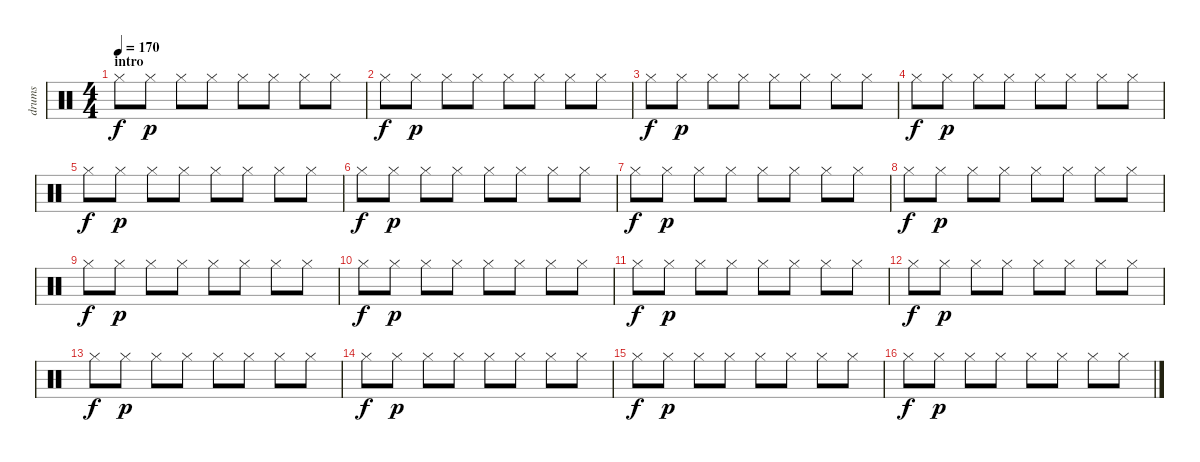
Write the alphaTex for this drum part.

\track ("drums" "drums") {instrument percussion}
\staff {score}
\articulation defaults
\ts (4 4)
\section ("" "intro")
\tempo 170
\clef neutral
\ks c "Hi-Hat (closed)".8{dy f} "Hi-Hat (closed)".8{dy p} "Hi-Hat (closed)".8 "Hi-Hat (closed)".8 "Hi-Hat (closed)".8 "Hi-Hat (closed)".8 "Hi-Hat (closed)".8 "Hi-Hat (closed)".8
|
"Hi-Hat (closed)".8{dy f} "Hi-Hat (closed)".8{dy p} "Hi-Hat (closed)".8 "Hi-Hat (closed)".8 "Hi-Hat (closed)".8 "Hi-Hat (closed)".8 "Hi-Hat (closed)".8 "Hi-Hat (closed)".8 |
"Hi-Hat (closed)".8{dy f} "Hi-Hat (closed)".8{dy p} "Hi-Hat (closed)".8 "Hi-Hat (closed)".8 "Hi-Hat (closed)".8 "Hi-Hat (closed)".8 "Hi-Hat (closed)".8 "Hi-Hat (closed)".8 |
"Hi-Hat (closed)".8{dy f} "Hi-Hat (closed)".8{dy p} "Hi-Hat (closed)".8 "Hi-Hat (closed)".8 "Hi-Hat (closed)".8 "Hi-Hat (closed)".8 "Hi-Hat (closed)".8 "Hi-Hat (closed)".8 |
"Hi-Hat (closed)".8{dy f} "Hi-Hat (closed)".8{dy p} "Hi-Hat (closed)".8 "Hi-Hat (closed)".8 "Hi-Hat (closed)".8 "Hi-Hat (closed)".8 "Hi-Hat (closed)".8 "Hi-Hat (closed)".8 |
"Hi-Hat (closed)".8{dy f} "Hi-Hat (closed)".8{dy p} "Hi-Hat (closed)".8 "Hi-Hat (closed)".8 "Hi-Hat (closed)".8 "Hi-Hat (closed)".8 "Hi-Hat (closed)".8 "Hi-Hat (closed)".8 |
"Hi-Hat (closed)".8{dy f} "Hi-Hat (closed)".8{dy p} "Hi-Hat (closed)".8 "Hi-Hat (closed)".8 "Hi-Hat (closed)".8 "Hi-Hat (closed)".8 "Hi-Hat (closed)".8 "Hi-Hat (closed)".8 |
"Hi-Hat (closed)".8{dy f} "Hi-Hat (closed)".8{dy p} "Hi-Hat (closed)".8 "Hi-Hat (closed)".8 "Hi-Hat (closed)".8 "Hi-Hat (closed)".8 "Hi-Hat (closed)".8 "Hi-Hat (closed)".8 |
"Hi-Hat (closed)".8{dy f} "Hi-Hat (closed)".8{dy p} "Hi-Hat (closed)".8 "Hi-Hat (closed)".8 "Hi-Hat (closed)".8 "Hi-Hat (closed)".8 "Hi-Hat (closed)".8 "Hi-Hat (closed)".8 |
"Hi-Hat (closed)".8{dy f} "Hi-Hat (closed)".8{dy p} "Hi-Hat (closed)".8 "Hi-Hat (closed)".8 "Hi-Hat (closed)".8 "Hi-Hat (closed)".8 "Hi-Hat (closed)".8 "Hi-Hat (closed)".8 |
"Hi-Hat (closed)".8{dy f} "Hi-Hat (closed)".8{dy p} "Hi-Hat (closed)".8 "Hi-Hat (closed)".8 "Hi-Hat (closed)".8 "Hi-Hat (closed)".8 "Hi-Hat (closed)".8 "Hi-Hat (closed)".8 |
"Hi-Hat (closed)".8{dy f} "Hi-Hat (closed)".8{dy p} "Hi-Hat (closed)".8 "Hi-Hat (closed)".8 "Hi-Hat (closed)".8 "Hi-Hat (closed)".8 "Hi-Hat (closed)".8 "Hi-Hat (closed)".8 |
"Hi-Hat (closed)".8{dy f} "Hi-Hat (closed)".8{dy p} "Hi-Hat (closed)".8 "Hi-Hat (closed)".8 "Hi-Hat (closed)".8 "Hi-Hat (closed)".8 "Hi-Hat (closed)".8 "Hi-Hat (closed)".8 |
"Hi-Hat (closed)".8{dy f} "Hi-Hat (closed)".8{dy p} "Hi-Hat (closed)".8 "Hi-Hat (closed)".8 "Hi-Hat (closed)".8 "Hi-Hat (closed)".8 "Hi-Hat (closed)".8 "Hi-Hat (closed)".8 |
"Hi-Hat (closed)".8{dy f} "Hi-Hat (closed)".8{dy p} "Hi-Hat (closed)".8 "Hi-Hat (closed)".8 "Hi-Hat (closed)".8 "Hi-Hat (closed)".8 "Hi-Hat (closed)".8 "Hi-Hat (closed)".8 |
"Hi-Hat (closed)".8{dy f} "Hi-Hat (closed)".8{dy p} "Hi-Hat (closed)".8 "Hi-Hat (closed)".8 "Hi-Hat (closed)".8 "Hi-Hat (closed)".8 "Hi-Hat (closed)".8 "Hi-Hat (closed)".8
